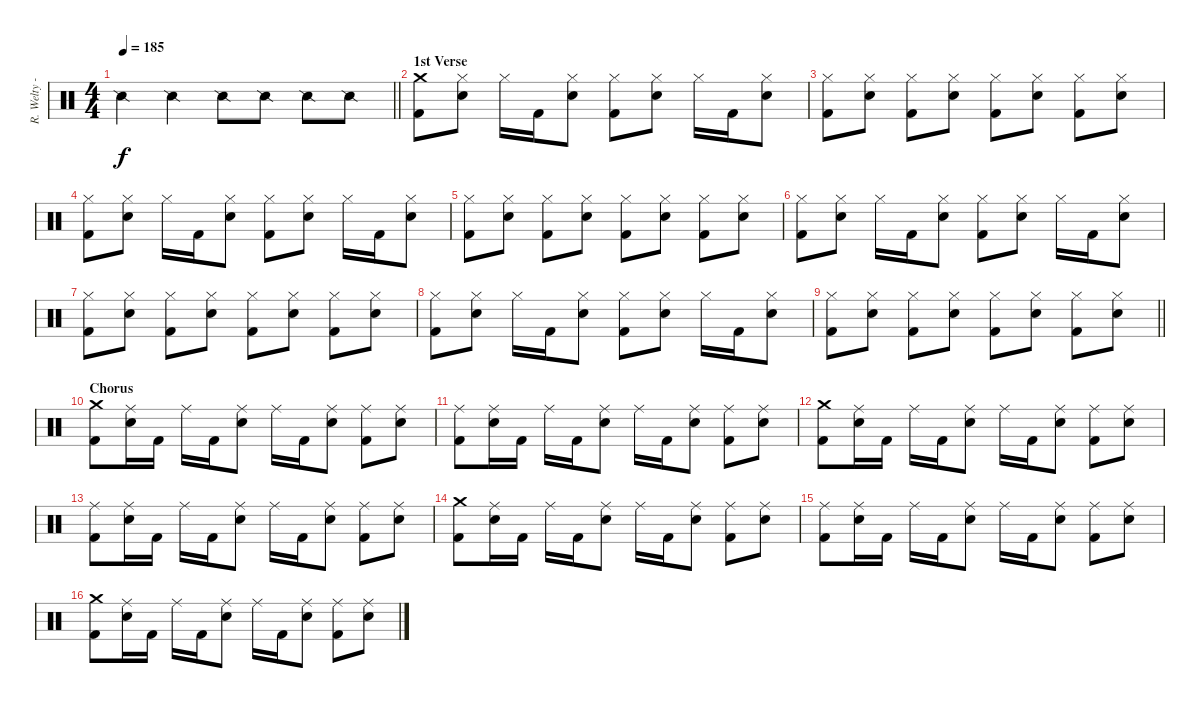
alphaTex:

\track ("R. Welty - Drums" "R. Welty -") {instrument percussion}
\staff {score}
\articulation defaults
\ts (4 4)
\tempo 185
\clef neutral
\barLineRight lightlight
\ks c "Snare (side stick) 2".4{dy f} "Snare (side stick) 2".4 "Snare (side stick) 2".8 "Snare (side stick) 2".8 "Snare (side stick) 2".8 "Snare (side stick) 2".8
|
\section ("" "1st Verse")
("Crash medium (hit)" "Kick (hit) 2").8 ("Hi-Hat (closed)" "Electric Snare (hit)").8 "Hi-Hat (closed)".16 "Kick (hit) 2".16 ("Hi-Hat (closed)" "Electric Snare (hit)").8 ("Hi-Hat (closed)" "Kick (hit) 2").8 ("Hi-Hat (closed)" "Electric Snare (hit)").8 "Hi-Hat (closed)".16 "Kick (hit) 2".16 ("Hi-Hat (closed)" "Electric Snare (hit)").8 |
("Hi-Hat (closed)" "Kick (hit) 2").8 ("Hi-Hat (closed)" "Electric Snare (hit)").8 ("Hi-Hat (closed)" "Kick (hit) 2").8 ("Hi-Hat (closed)" "Electric Snare (hit)").8 ("Hi-Hat (closed)" "Kick (hit) 2").8 ("Hi-Hat (closed)" "Electric Snare (hit)").8 ("Hi-Hat (closed)" "Kick (hit) 2").8 ("Hi-Hat (closed)" "Electric Snare (hit)").8 |
("Hi-Hat (closed)" "Kick (hit) 2").8 ("Hi-Hat (closed)" "Electric Snare (hit)").8 "Hi-Hat (closed)".16 "Kick (hit) 2".16 ("Hi-Hat (closed)" "Electric Snare (hit)").8 ("Hi-Hat (closed)" "Kick (hit) 2").8 ("Hi-Hat (closed)" "Electric Snare (hit)").8 "Hi-Hat (closed)".16 "Kick (hit) 2".16 ("Hi-Hat (closed)" "Electric Snare (hit)").8 |
("Hi-Hat (closed)" "Kick (hit) 2").8 ("Hi-Hat (closed)" "Electric Snare (hit)").8 ("Hi-Hat (closed)" "Kick (hit) 2").8 ("Hi-Hat (closed)" "Electric Snare (hit)").8 ("Hi-Hat (closed)" "Kick (hit) 2").8 ("Hi-Hat (closed)" "Electric Snare (hit)").8 ("Hi-Hat (closed)" "Kick (hit) 2").8 ("Hi-Hat (closed)" "Electric Snare (hit)").8 |
("Hi-Hat (closed)" "Kick (hit) 2").8 ("Hi-Hat (closed)" "Electric Snare (hit)").8 "Hi-Hat (closed)".16 "Kick (hit) 2".16 ("Hi-Hat (closed)" "Electric Snare (hit)").8 ("Hi-Hat (closed)" "Kick (hit) 2").8 ("Hi-Hat (closed)" "Electric Snare (hit)").8 "Hi-Hat (closed)".16 "Kick (hit) 2".16 ("Hi-Hat (closed)" "Electric Snare (hit)").8 |
("Hi-Hat (closed)" "Kick (hit) 2").8 ("Hi-Hat (closed)" "Electric Snare (hit)").8 ("Hi-Hat (closed)" "Kick (hit) 2").8 ("Hi-Hat (closed)" "Electric Snare (hit)").8 ("Hi-Hat (closed)" "Kick (hit) 2").8 ("Hi-Hat (closed)" "Electric Snare (hit)").8 ("Hi-Hat (closed)" "Kick (hit) 2").8 ("Hi-Hat (closed)" "Electric Snare (hit)").8 |
("Hi-Hat (closed)" "Kick (hit) 2").8 ("Hi-Hat (closed)" "Electric Snare (hit)").8 "Hi-Hat (closed)".16 "Kick (hit) 2".16 ("Hi-Hat (closed)" "Electric Snare (hit)").8 ("Hi-Hat (closed)" "Kick (hit) 2").8 ("Hi-Hat (closed)" "Electric Snare (hit)").8 "Hi-Hat (closed)".16 "Kick (hit) 2".16 ("Hi-Hat (closed)" "Electric Snare (hit)").8 |
\barLineRight lightlight
("Hi-Hat (closed)" "Kick (hit) 2").8 ("Hi-Hat (closed)" "Electric Snare (hit)").8 ("Hi-Hat (closed)" "Kick (hit) 2").8 ("Hi-Hat (closed)" "Electric Snare (hit)").8 ("Hi-Hat (closed)" "Kick (hit) 2").8 ("Hi-Hat (closed)" "Electric Snare (hit)").8 ("Hi-Hat (closed)" "Kick (hit) 2").8 ("Hi-Hat (closed)" "Electric Snare (hit)").8 |
\section ("" "Chorus")
("Crash medium (hit)" "Kick (hit) 2").8 ("Ride (middle)" "Electric Snare (hit)").16 "Kick (hit) 2".16 "Ride (middle)".16 "Kick (hit) 2".16 ("Ride (middle)" "Electric Snare (hit)").8 "Ride (middle)".16 "Kick (hit) 2".16 ("Ride (middle)" "Electric Snare (hit)").8 ("Ride (middle)" "Kick (hit) 2").8 ("Ride (middle)" "Electric Snare (hit)").8 |
("Ride (middle)" "Kick (hit) 2").8 ("Ride (middle)" "Electric Snare (hit)").16 "Kick (hit) 2".16 "Ride (middle)".16 "Kick (hit) 2".16 ("Ride (middle)" "Electric Snare (hit)").8 "Ride (middle)".16 "Kick (hit) 2".16 ("Ride (middle)" "Electric Snare (hit)").8 ("Ride (middle)" "Kick (hit) 2").8 ("Ride (middle)" "Electric Snare (hit)").8 |
("Crash medium (hit)" "Kick (hit) 2").8 ("Ride (middle)" "Electric Snare (hit)").16 "Kick (hit) 2".16 "Ride (middle)".16 "Kick (hit) 2".16 ("Ride (middle)" "Electric Snare (hit)").8 "Ride (middle)".16 "Kick (hit) 2".16 ("Ride (middle)" "Electric Snare (hit)").8 ("Ride (middle)" "Kick (hit) 2").8 ("Ride (middle)" "Electric Snare (hit)").8 |
("Ride (middle)" "Kick (hit) 2").8 ("Ride (middle)" "Electric Snare (hit)").16 "Kick (hit) 2".16 "Ride (middle)".16 "Kick (hit) 2".16 ("Ride (middle)" "Electric Snare (hit)").8 "Ride (middle)".16 "Kick (hit) 2".16 ("Ride (middle)" "Electric Snare (hit)").8 ("Ride (middle)" "Kick (hit) 2").8 ("Ride (middle)" "Electric Snare (hit)").8 |
("Crash medium (hit)" "Kick (hit) 2").8 ("Ride (middle)" "Electric Snare (hit)").16 "Kick (hit) 2".16 "Ride (middle)".16 "Kick (hit) 2".16 ("Ride (middle)" "Electric Snare (hit)").8 "Ride (middle)".16 "Kick (hit) 2".16 ("Ride (middle)" "Electric Snare (hit)").8 ("Ride (middle)" "Kick (hit) 2").8 ("Ride (middle)" "Electric Snare (hit)").8 |
("Ride (middle)" "Kick (hit) 2").8 ("Ride (middle)" "Electric Snare (hit)").16 "Kick (hit) 2".16 "Ride (middle)".16 "Kick (hit) 2".16 ("Ride (middle)" "Electric Snare (hit)").8 "Ride (middle)".16 "Kick (hit) 2".16 ("Ride (middle)" "Electric Snare (hit)").8 ("Ride (middle)" "Kick (hit) 2").8 ("Ride (middle)" "Electric Snare (hit)").8 |
("Crash medium (hit)" "Kick (hit) 2").8 ("Ride (middle)" "Electric Snare (hit)").16 "Kick (hit) 2".16 "Ride (middle)".16 "Kick (hit) 2".16 ("Ride (middle)" "Electric Snare (hit)").8 "Ride (middle)".16 "Kick (hit) 2".16 ("Ride (middle)" "Electric Snare (hit)").8 ("Ride (middle)" "Kick (hit) 2").8 ("Ride (middle)" "Electric Snare (hit)").8
